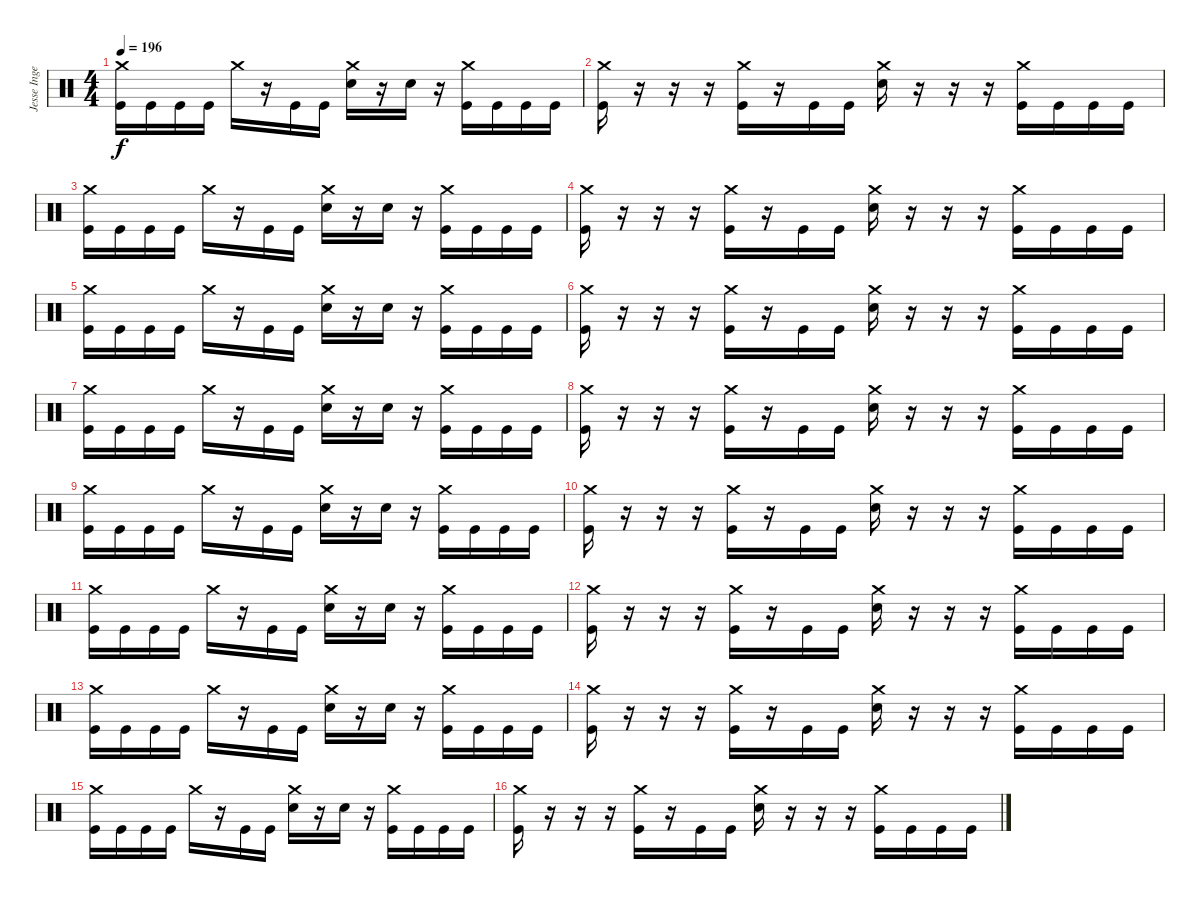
\track ("Jesse Ingelevics" "Jesse Inge") {instrument percussion}
\staff {score}
\articulation defaults
\ts (4 4)
\tempo 196
\clef neutral
\ks c
("Crash medium (hit)" "Kick (hit)").16{dy f} "Kick (hit)".16 "Kick (hit)".16 "Kick (hit)".16 "Crash medium (hit)".16 r.16 "Kick (hit)".16 "Kick (hit)".16 ("Crash medium (hit)" "Electric Snare (hit)").16 r.16 "Electric Snare (hit)".16 r.16 ("Crash medium (hit)" "Kick (hit)").16 "Kick (hit)".16 "Kick (hit)".16 "Kick (hit)".16 |
("Crash medium (hit)" "Kick (hit)").16 r.16 r.16 r.16 ("Crash medium (hit)" "Kick (hit)").16 r.16 "Kick (hit)".16 "Kick (hit)".16 ("Crash medium (hit)" "Electric Snare (hit)").16 r.16 r.16 r.16 ("Crash medium (hit)" "Kick (hit)").16 "Kick (hit)".16 "Kick (hit)".16 "Kick (hit)".16 |
("Crash medium (hit)" "Kick (hit)").16 "Kick (hit)".16 "Kick (hit)".16 "Kick (hit)".16 "Crash medium (hit)".16 r.16 "Kick (hit)".16 "Kick (hit)".16 ("Crash medium (hit)" "Electric Snare (hit)").16 r.16 "Electric Snare (hit)".16 r.16 ("Crash medium (hit)" "Kick (hit)").16 "Kick (hit)".16 "Kick (hit)".16 "Kick (hit)".16 |
("Crash medium (hit)" "Kick (hit)").16 r.16 r.16 r.16 ("Crash medium (hit)" "Kick (hit)").16 r.16 "Kick (hit)".16 "Kick (hit)".16 ("Crash medium (hit)" "Electric Snare (hit)").16 r.16 r.16 r.16 ("Crash medium (hit)" "Kick (hit)").16 "Kick (hit)".16 "Kick (hit)".16 "Kick (hit)".16 |
("Crash medium (hit)" "Kick (hit)").16 "Kick (hit)".16 "Kick (hit)".16 "Kick (hit)".16 "Crash medium (hit)".16 r.16 "Kick (hit)".16 "Kick (hit)".16 ("Crash medium (hit)" "Electric Snare (hit)").16 r.16 "Electric Snare (hit)".16 r.16 ("Crash medium (hit)" "Kick (hit)").16 "Kick (hit)".16 "Kick (hit)".16 "Kick (hit)".16 |
("Crash medium (hit)" "Kick (hit)").16 r.16 r.16 r.16 ("Crash medium (hit)" "Kick (hit)").16 r.16 "Kick (hit)".16 "Kick (hit)".16 ("Crash medium (hit)" "Electric Snare (hit)").16 r.16 r.16 r.16 ("Crash medium (hit)" "Kick (hit)").16 "Kick (hit)".16 "Kick (hit)".16 "Kick (hit)".16 |
("Crash medium (hit)" "Kick (hit)").16 "Kick (hit)".16 "Kick (hit)".16 "Kick (hit)".16 "Crash medium (hit)".16 r.16 "Kick (hit)".16 "Kick (hit)".16 ("Crash medium (hit)" "Electric Snare (hit)").16 r.16 "Electric Snare (hit)".16 r.16 ("Crash medium (hit)" "Kick (hit)").16 "Kick (hit)".16 "Kick (hit)".16 "Kick (hit)".16 |
("Crash medium (hit)" "Kick (hit)").16 r.16 r.16 r.16 ("Crash medium (hit)" "Kick (hit)").16 r.16 "Kick (hit)".16 "Kick (hit)".16 ("Crash medium (hit)" "Electric Snare (hit)").16 r.16 r.16 r.16 ("Crash medium (hit)" "Kick (hit)").16 "Kick (hit)".16 "Kick (hit)".16 "Kick (hit)".16 |
("Crash medium (hit)" "Kick (hit)").16 "Kick (hit)".16 "Kick (hit)".16 "Kick (hit)".16 "Crash medium (hit)".16 r.16 "Kick (hit)".16 "Kick (hit)".16 ("Crash medium (hit)" "Electric Snare (hit)").16 r.16 "Electric Snare (hit)".16 r.16 ("Crash medium (hit)" "Kick (hit)").16 "Kick (hit)".16 "Kick (hit)".16 "Kick (hit)".16 |
("Crash medium (hit)" "Kick (hit)").16 r.16 r.16 r.16 ("Crash medium (hit)" "Kick (hit)").16 r.16 "Kick (hit)".16 "Kick (hit)".16 ("Crash medium (hit)" "Electric Snare (hit)").16 r.16 r.16 r.16 ("Crash medium (hit)" "Kick (hit)").16 "Kick (hit)".16 "Kick (hit)".16 "Kick (hit)".16 |
("Crash medium (hit)" "Kick (hit)").16 "Kick (hit)".16 "Kick (hit)".16 "Kick (hit)".16 "Crash medium (hit)".16 r.16 "Kick (hit)".16 "Kick (hit)".16 ("Crash medium (hit)" "Electric Snare (hit)").16 r.16 "Electric Snare (hit)".16 r.16 ("Crash medium (hit)" "Kick (hit)").16 "Kick (hit)".16 "Kick (hit)".16 "Kick (hit)".16 |
("Crash medium (hit)" "Kick (hit)").16 r.16 r.16 r.16 ("Crash medium (hit)" "Kick (hit)").16 r.16 "Kick (hit)".16 "Kick (hit)".16 ("Crash medium (hit)" "Electric Snare (hit)").16 r.16 r.16 r.16 ("Crash medium (hit)" "Kick (hit)").16 "Kick (hit)".16 "Kick (hit)".16 "Kick (hit)".16 |
("Crash medium (hit)" "Kick (hit)").16 "Kick (hit)".16 "Kick (hit)".16 "Kick (hit)".16 "Crash medium (hit)".16 r.16 "Kick (hit)".16 "Kick (hit)".16 ("Crash medium (hit)" "Electric Snare (hit)").16 r.16 "Electric Snare (hit)".16 r.16 ("Crash medium (hit)" "Kick (hit)").16 "Kick (hit)".16 "Kick (hit)".16 "Kick (hit)".16 |
("Crash medium (hit)" "Kick (hit)").16 r.16 r.16 r.16 ("Crash medium (hit)" "Kick (hit)").16 r.16 "Kick (hit)".16 "Kick (hit)".16 ("Crash medium (hit)" "Electric Snare (hit)").16 r.16 r.16 r.16 ("Crash medium (hit)" "Kick (hit)").16 "Kick (hit)".16 "Kick (hit)".16 "Kick (hit)".16 |
("Crash medium (hit)" "Kick (hit)").16 "Kick (hit)".16 "Kick (hit)".16 "Kick (hit)".16 "Crash medium (hit)".16 r.16 "Kick (hit)".16 "Kick (hit)".16 ("Crash medium (hit)" "Electric Snare (hit)").16 r.16 "Electric Snare (hit)".16 r.16 ("Crash medium (hit)" "Kick (hit)").16 "Kick (hit)".16 "Kick (hit)".16 "Kick (hit)".16 |
("Crash medium (hit)" "Kick (hit)").16 r.16 r.16 r.16 ("Crash medium (hit)" "Kick (hit)").16 r.16 "Kick (hit)".16 "Kick (hit)".16 ("Crash medium (hit)" "Electric Snare (hit)").16 r.16 r.16 r.16 ("Crash medium (hit)" "Kick (hit)").16 "Kick (hit)".16 "Kick (hit)".16 "Kick (hit)".16
